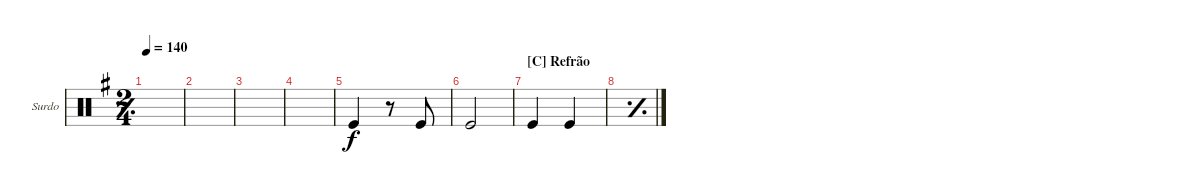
\defaultSystemsLayout 4
\bracketExtendMode groupsimilarinstruments
\firstSystemTrackNameOrientation horizontal
\otherSystemsTrackNameOrientation horizontal
\track ("Surdo" "Surdo") {instrument percussion}
\staff {score}
\articulation defaults
\ts (2 4)
\tempo 140
\clef neutral
\simile simple
\ks g
|
|
|
|
\simile none "Kick (hit)".4
r.8 "Kick (hit)".8 |
"Kick (hit)".2 |
\section ("C" "Refrão")
"Kick (hit)".4 "Kick (hit)".4 |
\simile simple
